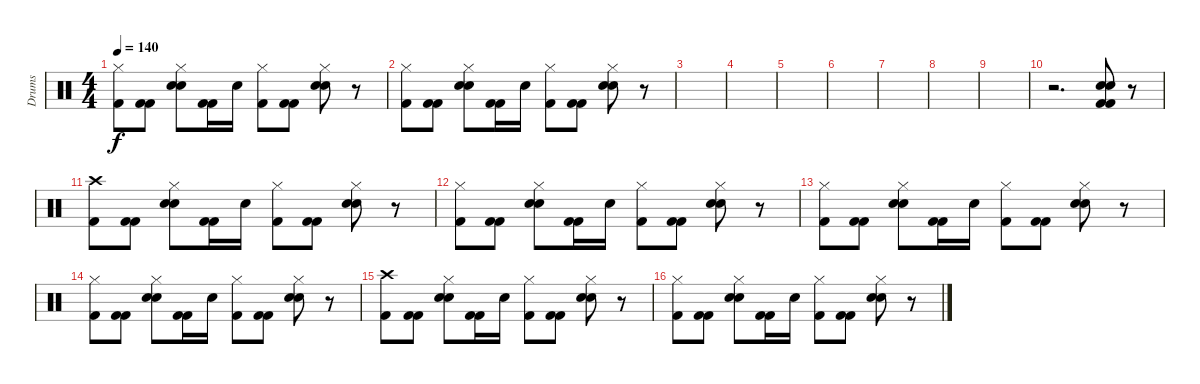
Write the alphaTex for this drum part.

\track ("Drums" "Drums") {instrument percussion}
\staff {score}
\articulation defaults
\ts (4 4)
\tempo 140
\clef neutral
\ks c
("Hi-Hat (closed)" "Kick (hit) 2").8{dy f} ("Kick (hit) 2" "Kick (hit) 2").8 ("Hi-Hat (closed)" "Hand Clap (hit)" "Snare (hit) 2").8 ("Kick (hit) 2" "Kick (hit) 2").16 "Snare (hit) 2".16 ("Hi-Hat (closed)" "Kick (hit) 2").8 ("Kick (hit) 2" "Kick (hit) 2").8 ("Hi-Hat (closed)" "Hand Clap (hit)" "Snare (hit) 2").8 r.8 |
("Hi-Hat (closed)" "Kick (hit) 2").8 ("Kick (hit) 2" "Kick (hit) 2").8 ("Hi-Hat (closed)" "Hand Clap (hit)" "Snare (hit) 2").8 ("Kick (hit) 2" "Kick (hit) 2").16 "Snare (hit) 2".16 ("Hi-Hat (closed)" "Kick (hit) 2").8 ("Kick (hit) 2" "Kick (hit) 2").8 ("Hi-Hat (closed)" "Hand Clap (hit)" "Snare (hit) 2").8 r.8 |
|
|
|
|
|
|
|
r.2{d} ("Hand Clap (hit)" "Snare (hit) 2" "Kick (hit) 2" "Kick (hit) 2").8 r.8 |
("Crash high (hit)" "Kick (hit) 2").8 ("Kick (hit) 2" "Kick (hit) 2").8 ("Hi-Hat (closed)" "Hand Clap (hit)" "Snare (hit) 2").8 ("Kick (hit) 2" "Kick (hit) 2").16 "Snare (hit) 2".16 ("Hi-Hat (closed)" "Kick (hit) 2").8 ("Kick (hit) 2" "Kick (hit) 2").8 ("Hi-Hat (closed)" "Hand Clap (hit)" "Snare (hit) 2").8 r.8 |
("Hi-Hat (closed)" "Kick (hit) 2").8 ("Kick (hit) 2" "Kick (hit) 2").8 ("Hi-Hat (closed)" "Hand Clap (hit)" "Snare (hit) 2").8 ("Kick (hit) 2" "Kick (hit) 2").16 "Snare (hit) 2".16 ("Hi-Hat (closed)" "Kick (hit) 2").8 ("Kick (hit) 2" "Kick (hit) 2").8 ("Hi-Hat (closed)" "Hand Clap (hit)" "Snare (hit) 2").8 r.8 |
("Hi-Hat (closed)" "Kick (hit) 2").8 ("Kick (hit) 2" "Kick (hit) 2").8 ("Hi-Hat (closed)" "Hand Clap (hit)" "Snare (hit) 2").8 ("Kick (hit) 2" "Kick (hit) 2").16 "Snare (hit) 2".16 ("Hi-Hat (closed)" "Kick (hit) 2").8 ("Kick (hit) 2" "Kick (hit) 2").8 ("Hi-Hat (closed)" "Hand Clap (hit)" "Snare (hit) 2").8 r.8 |
("Hi-Hat (closed)" "Kick (hit) 2").8 ("Kick (hit) 2" "Kick (hit) 2").8 ("Hi-Hat (closed)" "Hand Clap (hit)" "Snare (hit) 2").8 ("Kick (hit) 2" "Kick (hit) 2").16 "Snare (hit) 2".16 ("Hi-Hat (closed)" "Kick (hit) 2").8 ("Kick (hit) 2" "Kick (hit) 2").8 ("Hi-Hat (closed)" "Hand Clap (hit)" "Snare (hit) 2").8 r.8 |
("Crash high (hit)" "Kick (hit) 2").8 ("Kick (hit) 2" "Kick (hit) 2").8 ("Hi-Hat (closed)" "Hand Clap (hit)" "Snare (hit) 2").8 ("Kick (hit) 2" "Kick (hit) 2").16 "Snare (hit) 2".16 ("Hi-Hat (closed)" "Kick (hit) 2").8 ("Kick (hit) 2" "Kick (hit) 2").8 ("Hi-Hat (closed)" "Hand Clap (hit)" "Snare (hit) 2").8 r.8 |
("Hi-Hat (closed)" "Kick (hit) 2").8 ("Kick (hit) 2" "Kick (hit) 2").8 ("Hi-Hat (closed)" "Hand Clap (hit)" "Snare (hit) 2").8 ("Kick (hit) 2" "Kick (hit) 2").16 "Snare (hit) 2".16 ("Hi-Hat (closed)" "Kick (hit) 2").8 ("Kick (hit) 2" "Kick (hit) 2").8 ("Hi-Hat (closed)" "Hand Clap (hit)" "Snare (hit) 2").8 r.8
